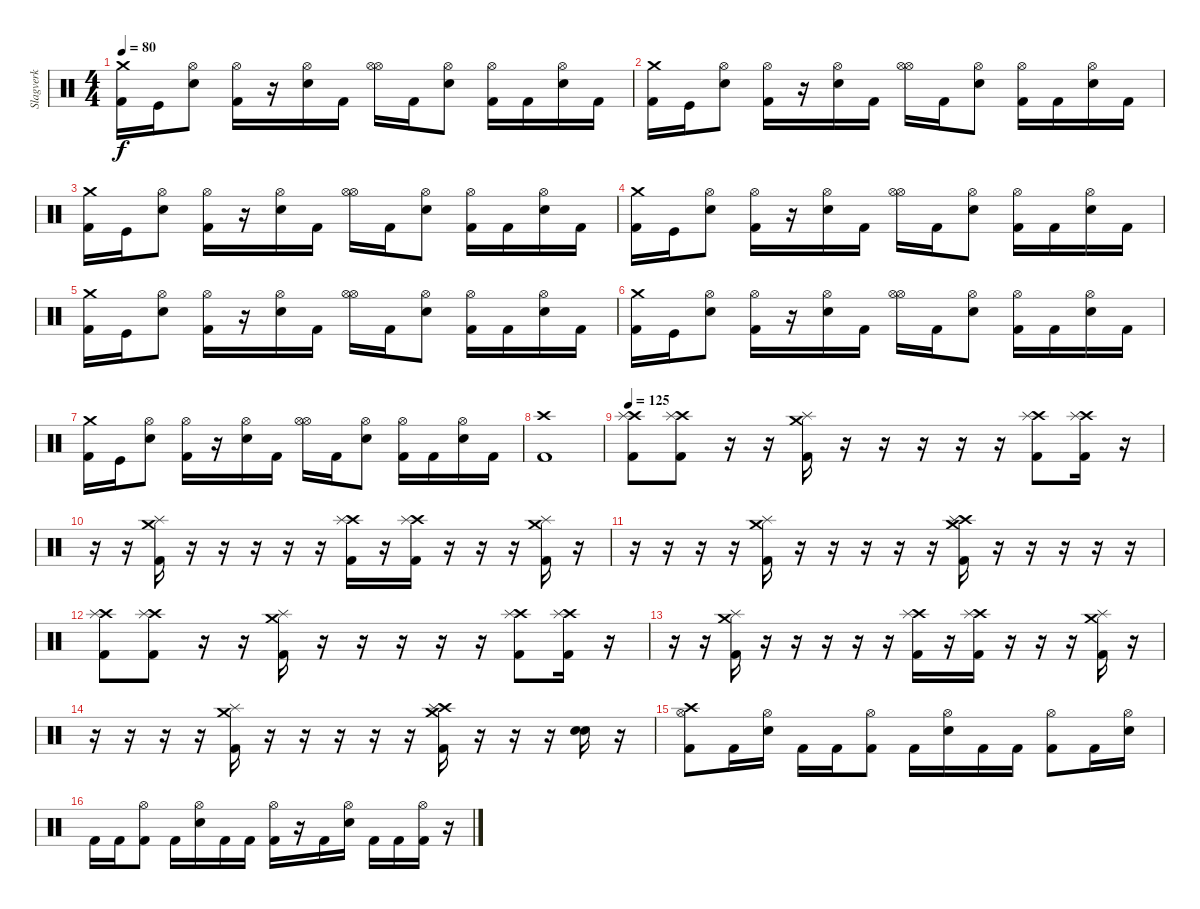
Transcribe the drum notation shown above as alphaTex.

\track ("Slagverk" "Slagverk") {instrument percussion}
\staff
\articulation defaults
\ts (4 4)
\tempo 80
\clef neutral
\ks c
("Crash medium (hit)" "Kick (hit) 2").16{dy f} "Kick (hit)".16 ("Hi-Hat (open)" "Snare (hit) 2").8 ("Hi-Hat (open)" "Kick (hit) 2").16 r.16 ("Hi-Hat (open)" "Snare (hit) 2").16 "Kick (hit) 2".16 ("Hi-Hat (open)" "Hi-Hat (open)").16 "Kick (hit) 2".16 ("Hi-Hat (open)" "Snare (hit) 2").8 ("Hi-Hat (open)" "Kick (hit) 2").16 "Kick (hit) 2".16 ("Hi-Hat (open)" "Snare (hit) 2").16 "Kick (hit) 2".16 |
("Crash medium (hit)" "Kick (hit) 2").16 "Kick (hit)".16 ("Hi-Hat (open)" "Snare (hit) 2").8 ("Hi-Hat (open)" "Kick (hit) 2").16 r.16 ("Hi-Hat (open)" "Snare (hit) 2").16 "Kick (hit) 2".16 ("Hi-Hat (open)" "Hi-Hat (open)").16 "Kick (hit) 2".16 ("Hi-Hat (open)" "Snare (hit) 2").8 ("Hi-Hat (open)" "Kick (hit) 2").16 "Kick (hit) 2".16 ("Hi-Hat (open)" "Snare (hit) 2").16 "Kick (hit) 2".16 |
("Crash medium (hit)" "Kick (hit) 2").16 "Kick (hit)".16 ("Hi-Hat (open)" "Snare (hit) 2").8 ("Hi-Hat (open)" "Kick (hit) 2").16 r.16 ("Hi-Hat (open)" "Snare (hit) 2").16 "Kick (hit) 2".16 ("Hi-Hat (open)" "Hi-Hat (open)").16 "Kick (hit) 2".16 ("Hi-Hat (open)" "Snare (hit) 2").8 ("Hi-Hat (open)" "Kick (hit) 2").16 "Kick (hit) 2".16 ("Hi-Hat (open)" "Snare (hit) 2").16 "Kick (hit) 2".16 |
("Crash medium (hit)" "Kick (hit) 2").16 "Kick (hit)".16 ("Hi-Hat (open)" "Snare (hit) 2").8 ("Hi-Hat (open)" "Kick (hit) 2").16 r.16 ("Hi-Hat (open)" "Snare (hit) 2").16 "Kick (hit) 2".16 ("Hi-Hat (open)" "Hi-Hat (open)").16 "Kick (hit) 2".16 ("Hi-Hat (open)" "Snare (hit) 2").8 ("Hi-Hat (open)" "Kick (hit) 2").16 "Kick (hit) 2".16 ("Hi-Hat (open)" "Snare (hit) 2").16 "Kick (hit) 2".16 |
("Crash medium (hit)" "Kick (hit) 2").16 "Kick (hit)".16 ("Hi-Hat (open)" "Snare (hit) 2").8 ("Hi-Hat (open)" "Kick (hit) 2").16 r.16 ("Hi-Hat (open)" "Snare (hit) 2").16 "Kick (hit) 2".16 ("Hi-Hat (open)" "Hi-Hat (open)").16 "Kick (hit) 2".16 ("Hi-Hat (open)" "Snare (hit) 2").8 ("Hi-Hat (open)" "Kick (hit) 2").16 "Kick (hit) 2".16 ("Hi-Hat (open)" "Snare (hit) 2").16 "Kick (hit) 2".16 |
("Crash medium (hit)" "Kick (hit) 2").16 "Kick (hit)".16 ("Hi-Hat (open)" "Snare (hit) 2").8 ("Hi-Hat (open)" "Kick (hit) 2").16 r.16 ("Hi-Hat (open)" "Snare (hit) 2").16 "Kick (hit) 2".16 ("Hi-Hat (open)" "Hi-Hat (open)").16 "Kick (hit) 2".16 ("Hi-Hat (open)" "Snare (hit) 2").8 ("Hi-Hat (open)" "Kick (hit) 2").16 "Kick (hit) 2".16 ("Hi-Hat (open)" "Snare (hit) 2").16 "Kick (hit) 2".16 |
("Crash medium (hit)" "Kick (hit) 2").16 "Kick (hit)".16 ("Hi-Hat (open)" "Snare (hit) 2").8 ("Hi-Hat (open)" "Kick (hit) 2").16 r.16 ("Hi-Hat (open)" "Snare (hit) 2").16 "Kick (hit) 2".16 ("Hi-Hat (open)" "Hi-Hat (open)").16 "Kick (hit) 2".16 ("Hi-Hat (open)" "Snare (hit) 2").8 ("Hi-Hat (open)" "Kick (hit) 2").16 "Kick (hit) 2".16 ("Hi-Hat (open)" "Snare (hit) 2").16 "Kick (hit) 2".16 |
("Kick (hit) 2" "Crash high (hit)").1 |
\tempo 125
("Kick (hit) 2" "Crash high (hit)" "Splash (hit)").8 ("Kick (hit) 2" "Crash high (hit)" "Splash (hit)").8 r.16{volume 0} r.16 ("Splash (hit)" "Crash medium (hit)" "Kick (hit) 2").16{volume 13} r.16 r.16 r.16 r.16 r.16 ("Kick (hit) 2" "Crash high (hit)" "Splash (hit)").8 ("Kick (hit) 2" "Crash high (hit)" "Splash (hit)").16 r.16 |
r.16{volume 0} r.16 ("Splash (hit)" "Crash medium (hit)" "Kick (hit) 2").16{volume 13} r.16 r.16 r.16 r.16 r.16 ("Crash high (hit)" "Splash (hit)" "Kick (hit) 2").16 r.16 ("Crash high (hit)" "Kick (hit) 2" "Splash (hit)").16 r.16 r.16{volume 0} r.16 ("Crash medium (hit)" "Kick (hit) 2" "Splash (hit)").16{volume 13} r.16 |
r.16 r.16 r.16 r.16 ("Crash medium (hit)" "Kick (hit) 2" "Splash (hit)").16 r.16 r.16 r.16 r.16 r.16 ("Crash high (hit)" "Kick (hit) 2" "Splash (hit)" "Crash medium (hit)").16 r.16 r.16 r.16 r.16 r.16 |
("Kick (hit) 2" "Crash high (hit)" "Splash (hit)").8 ("Kick (hit) 2" "Crash high (hit)" "Splash (hit)").8 r.16{volume 0} r.16 ("Splash (hit)" "Crash medium (hit)" "Kick (hit) 2").16{volume 13} r.16 r.16 r.16 r.16 r.16 ("Kick (hit) 2" "Crash high (hit)" "Splash (hit)").8 ("Kick (hit) 2" "Crash high (hit)" "Splash (hit)").16 r.16 |
r.16{volume 0} r.16 ("Splash (hit)" "Crash medium (hit)" "Kick (hit) 2").16{volume 13} r.16 r.16 r.16 r.16 r.16 ("Crash high (hit)" "Splash (hit)" "Kick (hit) 2").16 r.16 ("Crash high (hit)" "Kick (hit) 2" "Splash (hit)").16 r.16 r.16{volume 0} r.16 ("Crash medium (hit)" "Kick (hit) 2" "Splash (hit)").16{volume 13} r.16 |
r.16 r.16 r.16 r.16 ("Crash medium (hit)" "Kick (hit) 2" "Splash (hit)").16 r.16 r.16 r.16 r.16 r.16 ("Crash high (hit)" "Kick (hit) 2" "Splash (hit)" "Crash medium (hit)").16 r.16 r.16 r.16 ("Electric Snare (hit)" "Electric Snare (hit)").16 r.16 |
("Hi-Hat (open)" "Kick (hit) 2" "Crash high (hit)").8 "Kick (hit) 2".16 ("Hi-Hat (open)" "Snare (hit) 2").16 "Kick (hit) 2".16 "Kick (hit) 2".16 ("Hi-Hat (open)" "Kick (hit) 2").8 "Kick (hit) 2".16 ("Hi-Hat (open)" "Snare (hit) 2").16 "Kick (hit) 2".16 "Kick (hit) 2".16 ("Hi-Hat (open)" "Kick (hit) 2").8 "Kick (hit) 2".16 ("Hi-Hat (open)" "Snare (hit) 2").16 |
"Kick (hit) 2".16 "Kick (hit) 2".16 ("Hi-Hat (open)" "Kick (hit) 2").8 "Kick (hit) 2".16 ("Hi-Hat (open)" "Snare (hit) 2").16 "Kick (hit) 2".16 "Kick (hit) 2".16 ("Hi-Hat (open)" "Kick (hit) 2").16 r.16 "Kick (hit) 2".16 ("Hi-Hat (open)" "Snare (hit) 2").16 "Kick (hit) 2".16 "Kick (hit) 2".16 ("Hi-Hat (open)" "Kick (hit) 2").16 r.16
